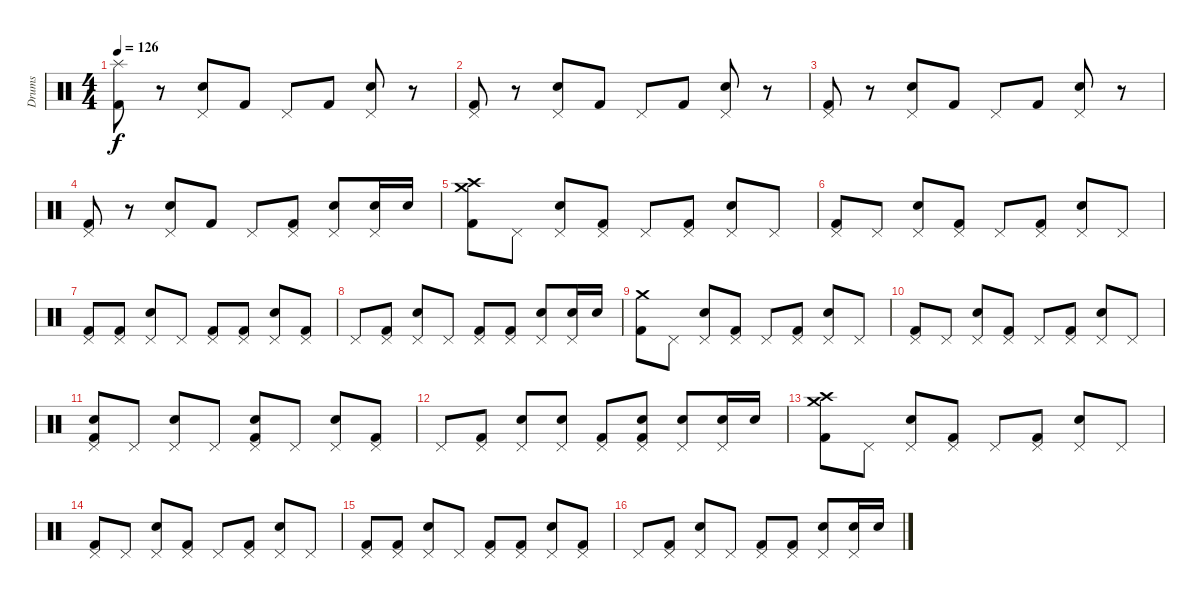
\track ("Drums" "Drums") {instrument percussion}
\staff {score}
\articulation defaults
\ts (4 4)
\tempo 126
\clef neutral
\ks c
("Splash (hit)" "Kick (hit) 2").8{dy f} r.8 ("Pedal Hi-Hat (hit)" "Snare (hit) 2").8 "Kick (hit) 2".8 "Pedal Hi-Hat (hit)".8 "Kick (hit) 2".8 ("Pedal Hi-Hat (hit)" "Snare (hit) 2").8 r.8 |
("Pedal Hi-Hat (hit)" "Kick (hit) 2").8 r.8 ("Pedal Hi-Hat (hit)" "Snare (hit) 2").8 "Kick (hit) 2".8 "Pedal Hi-Hat (hit)".8 "Kick (hit) 2".8 ("Pedal Hi-Hat (hit)" "Snare (hit) 2").8 r.8 |
("Pedal Hi-Hat (hit)" "Kick (hit) 2").8 r.8 ("Pedal Hi-Hat (hit)" "Snare (hit) 2").8 "Kick (hit) 2".8 "Pedal Hi-Hat (hit)".8 "Kick (hit) 2".8 ("Pedal Hi-Hat (hit)" "Snare (hit) 2").8 r.8 |
("Pedal Hi-Hat (hit)" "Kick (hit) 2").8 r.8 ("Pedal Hi-Hat (hit)" "Snare (hit) 2").8 "Kick (hit) 2".8 "Pedal Hi-Hat (hit)".8 ("Pedal Hi-Hat (hit)" "Kick (hit) 2").8 ("Pedal Hi-Hat (hit)" "Snare (hit) 2").8 ("Pedal Hi-Hat (hit)" "Snare (hit) 2").16 "Snare (hit) 2".16 |
("Crash medium (hit)" "Crash high (hit)" "Kick (hit) 2").8 "Pedal Hi-Hat (hit)".8 ("Pedal Hi-Hat (hit)" "Snare (hit) 2").8 ("Pedal Hi-Hat (hit)" "Kick (hit) 2").8 "Pedal Hi-Hat (hit)".8 ("Pedal Hi-Hat (hit)" "Kick (hit) 2").8 ("Pedal Hi-Hat (hit)" "Snare (hit) 2").8 "Pedal Hi-Hat (hit)".8 |
("Pedal Hi-Hat (hit)" "Kick (hit) 2").8 "Pedal Hi-Hat (hit)".8 ("Pedal Hi-Hat (hit)" "Snare (hit) 2").8 ("Pedal Hi-Hat (hit)" "Kick (hit) 2").8 "Pedal Hi-Hat (hit)".8 ("Pedal Hi-Hat (hit)" "Kick (hit) 2").8 ("Pedal Hi-Hat (hit)" "Snare (hit) 2").8 "Pedal Hi-Hat (hit)".8 |
("Pedal Hi-Hat (hit)" "Kick (hit) 2").8 ("Pedal Hi-Hat (hit)" "Kick (hit) 2").8 ("Pedal Hi-Hat (hit)" "Snare (hit) 2").8 "Pedal Hi-Hat (hit)".8 ("Pedal Hi-Hat (hit)" "Kick (hit) 2").8 ("Pedal Hi-Hat (hit)" "Kick (hit) 2").8 ("Pedal Hi-Hat (hit)" "Snare (hit) 2").8 ("Pedal Hi-Hat (hit)" "Kick (hit) 2").8 |
"Pedal Hi-Hat (hit)".8 ("Pedal Hi-Hat (hit)" "Kick (hit) 2").8 ("Pedal Hi-Hat (hit)" "Snare (hit) 2").8 "Pedal Hi-Hat (hit)".8 ("Pedal Hi-Hat (hit)" "Kick (hit) 2").8 ("Pedal Hi-Hat (hit)" "Kick (hit) 2").8 ("Pedal Hi-Hat (hit)" "Snare (hit) 2").8 ("Pedal Hi-Hat (hit)" "Snare (hit) 2").16 "Snare (hit) 2".16 |
("Crash medium (hit)" "Kick (hit) 2").8 "Pedal Hi-Hat (hit)".8 ("Pedal Hi-Hat (hit)" "Snare (hit) 2").8 ("Pedal Hi-Hat (hit)" "Kick (hit) 2").8 "Pedal Hi-Hat (hit)".8 ("Pedal Hi-Hat (hit)" "Kick (hit) 2").8 ("Pedal Hi-Hat (hit)" "Snare (hit) 2").8 "Pedal Hi-Hat (hit)".8 |
("Pedal Hi-Hat (hit)" "Kick (hit) 2").8 "Pedal Hi-Hat (hit)".8 ("Pedal Hi-Hat (hit)" "Snare (hit) 2").8 ("Pedal Hi-Hat (hit)" "Kick (hit) 2").8 "Pedal Hi-Hat (hit)".8 ("Pedal Hi-Hat (hit)" "Kick (hit) 2").8 ("Pedal Hi-Hat (hit)" "Snare (hit) 2").8 "Pedal Hi-Hat (hit)".8 |
("Pedal Hi-Hat (hit)" "Snare (hit) 2" "Kick (hit) 2").8 "Pedal Hi-Hat (hit)".8 ("Pedal Hi-Hat (hit)" "Snare (hit) 2").8 "Pedal Hi-Hat (hit)".8 ("Pedal Hi-Hat (hit)" "Snare (hit) 2" "Kick (hit) 2").8 "Pedal Hi-Hat (hit)".8 ("Pedal Hi-Hat (hit)" "Snare (hit) 2").8 ("Pedal Hi-Hat (hit)" "Kick (hit) 2").8 |
"Pedal Hi-Hat (hit)".8 ("Pedal Hi-Hat (hit)" "Kick (hit) 2").8 ("Pedal Hi-Hat (hit)" "Snare (hit) 2").8 ("Pedal Hi-Hat (hit)" "Snare (hit) 2").8 ("Pedal Hi-Hat (hit)" "Kick (hit) 2").8 ("Pedal Hi-Hat (hit)" "Snare (hit) 2" "Kick (hit) 2").8 ("Pedal Hi-Hat (hit)" "Snare (hit) 2").8 ("Pedal Hi-Hat (hit)" "Snare (hit) 2").16 "Snare (hit) 2".16 |
("Crash medium (hit)" "Crash high (hit)" "Kick (hit) 2").8 "Pedal Hi-Hat (hit)".8 ("Pedal Hi-Hat (hit)" "Snare (hit) 2").8 ("Pedal Hi-Hat (hit)" "Kick (hit) 2").8 "Pedal Hi-Hat (hit)".8 ("Pedal Hi-Hat (hit)" "Kick (hit) 2").8 ("Pedal Hi-Hat (hit)" "Snare (hit) 2").8 "Pedal Hi-Hat (hit)".8 |
("Pedal Hi-Hat (hit)" "Kick (hit) 2").8 "Pedal Hi-Hat (hit)".8 ("Pedal Hi-Hat (hit)" "Snare (hit) 2").8 ("Pedal Hi-Hat (hit)" "Kick (hit) 2").8 "Pedal Hi-Hat (hit)".8 ("Pedal Hi-Hat (hit)" "Kick (hit) 2").8 ("Pedal Hi-Hat (hit)" "Snare (hit) 2").8 "Pedal Hi-Hat (hit)".8 |
("Pedal Hi-Hat (hit)" "Kick (hit) 2").8 ("Pedal Hi-Hat (hit)" "Kick (hit) 2").8 ("Pedal Hi-Hat (hit)" "Snare (hit) 2").8 "Pedal Hi-Hat (hit)".8 ("Pedal Hi-Hat (hit)" "Kick (hit) 2").8 ("Pedal Hi-Hat (hit)" "Kick (hit) 2").8 ("Pedal Hi-Hat (hit)" "Snare (hit) 2").8 ("Pedal Hi-Hat (hit)" "Kick (hit) 2").8 |
"Pedal Hi-Hat (hit)".8 ("Pedal Hi-Hat (hit)" "Kick (hit) 2").8 ("Pedal Hi-Hat (hit)" "Snare (hit) 2").8 "Pedal Hi-Hat (hit)".8 ("Pedal Hi-Hat (hit)" "Kick (hit) 2").8 ("Pedal Hi-Hat (hit)" "Kick (hit) 2").8 ("Pedal Hi-Hat (hit)" "Snare (hit) 2").8 ("Pedal Hi-Hat (hit)" "Snare (hit) 2").16 "Snare (hit) 2".16
